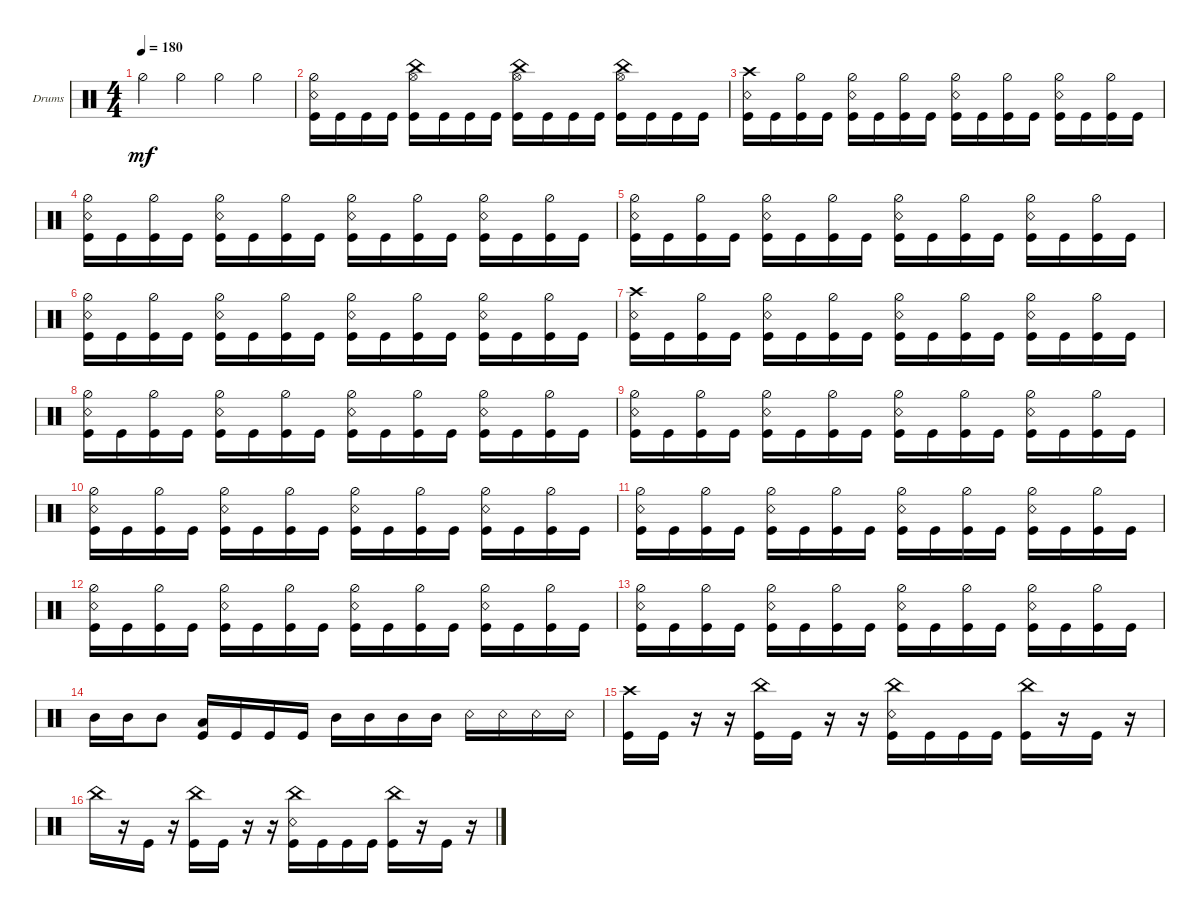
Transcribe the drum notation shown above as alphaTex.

\defaultSystemsLayout 4
\bracketExtendMode groupsimilarinstruments
\firstSystemTrackNameOrientation horizontal
\otherSystemsTrackNameOrientation horizontal
\track ("Drumkit" "Drums") {instrument percussion}
\staff {score}
\articulation defaults
\ts (4 4)
\tempo 180
\clef neutral
\ks c "Hi-Hat (half)".4{dy mf} "Hi-Hat (half)".4 "Hi-Hat (half)".4 "Hi-Hat (half)".4
|
("Kick (hit)" "Snare (rim shot)" "Hi-Hat (half)").16 "Kick (hit)".16 "Kick (hit)".16 "Kick (hit)".16 ("Kick (hit)" "China (hit)" "Hi-Hat (open)").16 "Kick (hit)".16 "Kick (hit)".16 "Kick (hit)".16 ("Kick (hit)" "China (hit)" "Hi-Hat (open)").16 "Kick (hit)".16 "Kick (hit)".16 "Kick (hit)".16 ("Kick (hit)" "Hi-Hat (open)" "China (hit)").16 "Kick (hit)".16 "Kick (hit)".16 "Kick (hit)".16 |
("Kick (hit)" "Snare (rim shot)" "Crash high (hit)").16 "Kick (hit)".16 ("Kick (hit)" "Hi-Hat (half)").16 "Kick (hit)".16 ("Kick (hit)" "Hi-Hat (half)" "Snare (rim shot)").16 "Kick (hit)".16 ("Kick (hit)" "Hi-Hat (half)").16 "Kick (hit)".16 ("Kick (hit)" "Hi-Hat (half)" "Snare (rim shot)").16 "Kick (hit)".16 ("Kick (hit)" "Hi-Hat (half)").16 "Kick (hit)".16 ("Kick (hit)" "Hi-Hat (half)" "Snare (rim shot)").16 "Kick (hit)".16 ("Kick (hit)" "Hi-Hat (half)").16 "Kick (hit)".16 |
("Kick (hit)" "Snare (rim shot)" "Hi-Hat (half)").16 "Kick (hit)".16 ("Kick (hit)" "Hi-Hat (half)").16 "Kick (hit)".16 ("Kick (hit)" "Hi-Hat (half)" "Snare (rim shot)").16 "Kick (hit)".16 ("Kick (hit)" "Hi-Hat (half)").16 "Kick (hit)".16 ("Kick (hit)" "Hi-Hat (half)" "Snare (rim shot)").16 "Kick (hit)".16 ("Kick (hit)" "Hi-Hat (half)").16 "Kick (hit)".16 ("Kick (hit)" "Hi-Hat (half)" "Snare (rim shot)").16 "Kick (hit)".16 ("Kick (hit)" "Hi-Hat (half)").16 "Kick (hit)".16 |
("Kick (hit)" "Snare (rim shot)" "Hi-Hat (half)").16 "Kick (hit)".16 ("Kick (hit)" "Hi-Hat (half)").16 "Kick (hit)".16 ("Kick (hit)" "Hi-Hat (half)" "Snare (rim shot)").16 "Kick (hit)".16 ("Kick (hit)" "Hi-Hat (half)").16 "Kick (hit)".16 ("Kick (hit)" "Hi-Hat (half)" "Snare (rim shot)").16 "Kick (hit)".16 ("Kick (hit)" "Hi-Hat (half)").16 "Kick (hit)".16 ("Kick (hit)" "Hi-Hat (half)" "Snare (rim shot)").16 "Kick (hit)".16 ("Kick (hit)" "Hi-Hat (half)").16 "Kick (hit)".16 |
("Kick (hit)" "Snare (rim shot)" "Hi-Hat (half)").16 "Kick (hit)".16 ("Kick (hit)" "Hi-Hat (half)").16 "Kick (hit)".16 ("Kick (hit)" "Hi-Hat (half)" "Snare (rim shot)").16 "Kick (hit)".16 ("Kick (hit)" "Hi-Hat (half)").16 "Kick (hit)".16 ("Kick (hit)" "Hi-Hat (half)" "Snare (rim shot)").16 "Kick (hit)".16 ("Kick (hit)" "Hi-Hat (half)").16 "Kick (hit)".16 ("Kick (hit)" "Hi-Hat (half)" "Snare (rim shot)").16 "Kick (hit)".16 ("Kick (hit)" "Hi-Hat (half)").16 "Kick (hit)".16 |
("Kick (hit)" "Snare (rim shot)" "Crash high (hit)").16 "Kick (hit)".16 ("Kick (hit)" "Hi-Hat (half)").16 "Kick (hit)".16 ("Kick (hit)" "Hi-Hat (half)" "Snare (rim shot)").16 "Kick (hit)".16 ("Kick (hit)" "Hi-Hat (half)").16 "Kick (hit)".16 ("Kick (hit)" "Hi-Hat (half)" "Snare (rim shot)").16 "Kick (hit)".16 ("Kick (hit)" "Hi-Hat (half)").16 "Kick (hit)".16 ("Kick (hit)" "Hi-Hat (half)" "Snare (rim shot)").16 "Kick (hit)".16 ("Kick (hit)" "Hi-Hat (half)").16 "Kick (hit)".16 |
("Kick (hit)" "Snare (rim shot)" "Hi-Hat (half)").16 "Kick (hit)".16 ("Kick (hit)" "Hi-Hat (half)").16 "Kick (hit)".16 ("Kick (hit)" "Hi-Hat (half)" "Snare (rim shot)").16 "Kick (hit)".16 ("Kick (hit)" "Hi-Hat (half)").16 "Kick (hit)".16 ("Kick (hit)" "Hi-Hat (half)" "Snare (rim shot)").16 "Kick (hit)".16 ("Kick (hit)" "Hi-Hat (half)").16 "Kick (hit)".16 ("Kick (hit)" "Hi-Hat (half)" "Snare (rim shot)").16 "Kick (hit)".16 ("Kick (hit)" "Hi-Hat (half)").16 "Kick (hit)".16 |
("Kick (hit)" "Snare (rim shot)" "Hi-Hat (half)").16 "Kick (hit)".16 ("Kick (hit)" "Hi-Hat (half)").16 "Kick (hit)".16 ("Kick (hit)" "Hi-Hat (half)" "Snare (rim shot)").16 "Kick (hit)".16 ("Kick (hit)" "Hi-Hat (half)").16 "Kick (hit)".16 ("Kick (hit)" "Hi-Hat (half)" "Snare (rim shot)").16 "Kick (hit)".16 ("Kick (hit)" "Hi-Hat (half)").16 "Kick (hit)".16 ("Kick (hit)" "Hi-Hat (half)" "Snare (rim shot)").16 "Kick (hit)".16 ("Kick (hit)" "Hi-Hat (half)").16 "Kick (hit)".16 |
("Kick (hit)" "Snare (rim shot)" "Hi-Hat (half)").16 "Kick (hit)".16 ("Kick (hit)" "Hi-Hat (half)").16 "Kick (hit)".16 ("Kick (hit)" "Hi-Hat (half)" "Snare (rim shot)").16 "Kick (hit)".16 ("Kick (hit)" "Hi-Hat (half)").16 "Kick (hit)".16 ("Kick (hit)" "Hi-Hat (half)" "Snare (rim shot)").16 "Kick (hit)".16 ("Kick (hit)" "Hi-Hat (half)").16 "Kick (hit)".16 ("Kick (hit)" "Hi-Hat (half)" "Snare (rim shot)").16 "Kick (hit)".16 ("Kick (hit)" "Hi-Hat (half)").16 "Kick (hit)".16 |
("Kick (hit)" "Snare (rim shot)" "Hi-Hat (half)").16 "Kick (hit)".16 ("Kick (hit)" "Hi-Hat (half)").16 "Kick (hit)".16 ("Kick (hit)" "Hi-Hat (half)" "Snare (rim shot)").16 "Kick (hit)".16 ("Kick (hit)" "Hi-Hat (half)").16 "Kick (hit)".16 ("Kick (hit)" "Hi-Hat (half)" "Snare (rim shot)").16 "Kick (hit)".16 ("Kick (hit)" "Hi-Hat (half)").16 "Kick (hit)".16 ("Kick (hit)" "Hi-Hat (half)" "Snare (rim shot)").16 "Kick (hit)".16 ("Kick (hit)" "Hi-Hat (half)").16 "Kick (hit)".16 |
("Kick (hit)" "Snare (rim shot)" "Hi-Hat (half)").16 "Kick (hit)".16 ("Kick (hit)" "Hi-Hat (half)").16 "Kick (hit)".16 ("Kick (hit)" "Hi-Hat (half)" "Snare (rim shot)").16 "Kick (hit)".16 ("Kick (hit)" "Hi-Hat (half)").16 "Kick (hit)".16 ("Kick (hit)" "Hi-Hat (half)" "Snare (rim shot)").16 "Kick (hit)".16 ("Kick (hit)" "Hi-Hat (half)").16 "Kick (hit)".16 ("Kick (hit)" "Hi-Hat (half)" "Snare (rim shot)").16 "Kick (hit)".16 ("Kick (hit)" "Hi-Hat (half)").16 "Kick (hit)".16 |
("Kick (hit)" "Snare (rim shot)" "Hi-Hat (half)").16 "Kick (hit)".16 ("Kick (hit)" "Hi-Hat (half)").16 "Kick (hit)".16 ("Kick (hit)" "Hi-Hat (half)" "Snare (rim shot)").16 "Kick (hit)".16 ("Kick (hit)" "Hi-Hat (half)").16 "Kick (hit)".16 ("Kick (hit)" "Hi-Hat (half)" "Snare (rim shot)").16 "Kick (hit)".16 ("Kick (hit)" "Hi-Hat (half)").16 "Kick (hit)".16 ("Kick (hit)" "Hi-Hat (half)" "Snare (rim shot)").16 "Kick (hit)".16 ("Kick (hit)" "Hi-Hat (half)").16 "Kick (hit)".16 |
"Mid Tom (hit)".16 "Mid Tom (hit)".16 "Mid Tom (hit)".8 ("Kick (hit)" "Low Tom (hit)").16 "Kick (hit)".16 "Kick (hit)".16 "Kick (hit)".16 "Mid Tom (hit)".16 "Mid Tom (hit)".16 "Mid Tom (hit)".16 "Mid Tom (hit)".16 "Snare (rim shot)".16 "Snare (rim shot)".16 "Snare (rim shot)".16 "Snare (rim shot)".16 |
("Kick (hit)" "Crash high (hit)").16 "Kick (hit)".16 r.16 r.16 ("Kick (hit)" "China (hit)").16 "Kick (hit)".16 r.16 r.16 ("Kick (hit)" "Snare (rim shot)" "China (hit)").16 "Kick (hit)".16 "Kick (hit)".16 "Kick (hit)".16 ("Kick (hit)" "China (hit)").16 r.16 "Kick (hit)".16 r.16 |
"China (hit)".16 r.16 "Kick (hit)".16 r.16 ("China (hit)" "Kick (hit)").16 "Kick (hit)".16 r.16 r.16 ("China (hit)" "Snare (rim shot)" "Kick (hit)").16 "Kick (hit)".16 "Kick (hit)".16 "Kick (hit)".16 ("China (hit)" "Kick (hit)").16 r.16 "Kick (hit)".16 r.16
